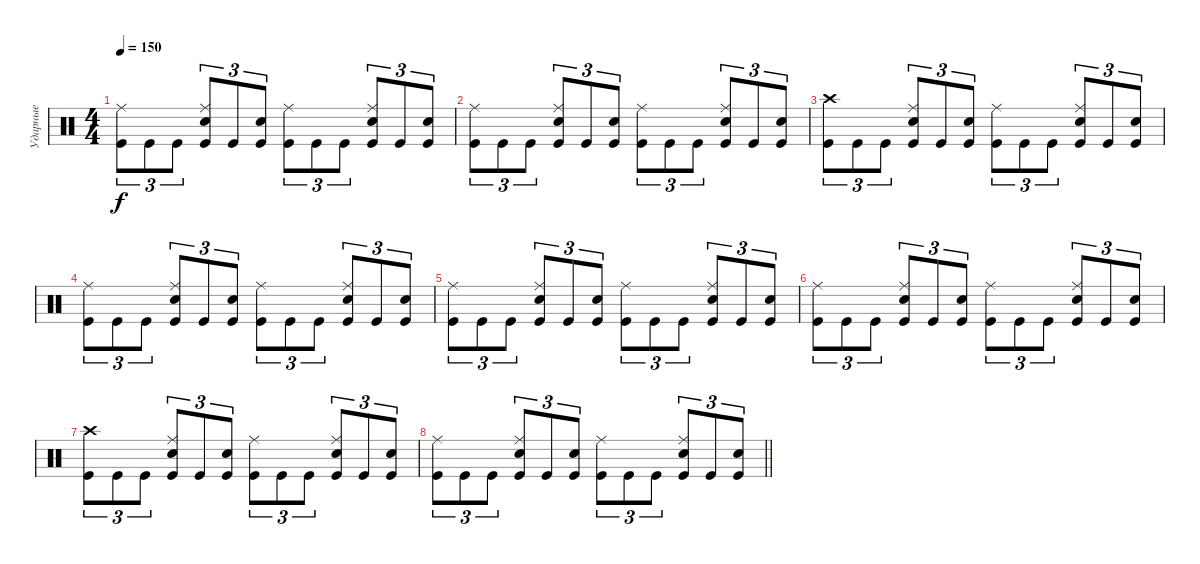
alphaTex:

\track ("Ударные" "Ударные") {instrument percussion}
\staff {score}
\articulation defaults
\ts (4 4)
\tempo 150
\clef neutral
\ks c
("Kick (hit)" "Ride (middle)").8{tu (3 2) dy f} "Kick (hit)".8{tu (3 2)} "Kick (hit)".8{tu (3 2)} ("Kick (hit)" "Electric Snare (hit)" "Ride (middle)").8{tu (3 2)} "Kick (hit)".8{tu (3 2)} ("Kick (hit)" "Electric Snare (hit)").8{tu (3 2)} ("Kick (hit)" "Ride (middle)").8{tu (3 2)} "Kick (hit)".8{tu (3 2)} "Kick (hit)".8{tu (3 2)} ("Kick (hit)" "Electric Snare (hit)" "Ride (middle)").8{tu (3 2)} "Kick (hit)".8{tu (3 2)} ("Kick (hit)" "Electric Snare (hit)").8{tu (3 2)} |
("Kick (hit)" "Ride (middle)").8{tu (3 2)} "Kick (hit)".8{tu (3 2)} "Kick (hit)".8{tu (3 2)} ("Kick (hit)" "Electric Snare (hit)" "Ride (middle)").8{tu (3 2)} "Kick (hit)".8{tu (3 2)} ("Kick (hit)" "Electric Snare (hit)").8{tu (3 2)} ("Kick (hit)" "Ride (middle)").8{tu (3 2)} "Kick (hit)".8{tu (3 2)} "Kick (hit)".8{tu (3 2)} ("Kick (hit)" "Electric Snare (hit)" "Ride (middle)").8{tu (3 2)} "Kick (hit)".8{tu (3 2)} ("Kick (hit)" "Electric Snare (hit)").8{tu (3 2)} |
("Kick (hit)" "Crash high (hit)").8{tu (3 2)} "Kick (hit)".8{tu (3 2)} "Kick (hit)".8{tu (3 2)} ("Kick (hit)" "Electric Snare (hit)" "Ride (middle)").8{tu (3 2)} "Kick (hit)".8{tu (3 2)} ("Kick (hit)" "Electric Snare (hit)").8{tu (3 2)} ("Kick (hit)" "Ride (middle)").8{tu (3 2)} "Kick (hit)".8{tu (3 2)} "Kick (hit)".8{tu (3 2)} ("Kick (hit)" "Electric Snare (hit)" "Ride (middle)").8{tu (3 2)} "Kick (hit)".8{tu (3 2)} ("Kick (hit)" "Electric Snare (hit)").8{tu (3 2)} |
("Kick (hit)" "Ride (middle)").8{tu (3 2)} "Kick (hit)".8{tu (3 2)} "Kick (hit)".8{tu (3 2)} ("Kick (hit)" "Electric Snare (hit)" "Ride (middle)").8{tu (3 2)} "Kick (hit)".8{tu (3 2)} ("Kick (hit)" "Electric Snare (hit)").8{tu (3 2)} ("Kick (hit)" "Ride (middle)").8{tu (3 2)} "Kick (hit)".8{tu (3 2)} "Kick (hit)".8{tu (3 2)} ("Kick (hit)" "Electric Snare (hit)" "Ride (middle)").8{tu (3 2)} "Kick (hit)".8{tu (3 2)} ("Kick (hit)" "Electric Snare (hit)").8{tu (3 2)} |
("Kick (hit)" "Ride (middle)").8{tu (3 2)} "Kick (hit)".8{tu (3 2)} "Kick (hit)".8{tu (3 2)} ("Kick (hit)" "Electric Snare (hit)" "Ride (middle)").8{tu (3 2)} "Kick (hit)".8{tu (3 2)} ("Kick (hit)" "Electric Snare (hit)").8{tu (3 2)} ("Kick (hit)" "Ride (middle)").8{tu (3 2)} "Kick (hit)".8{tu (3 2)} "Kick (hit)".8{tu (3 2)} ("Kick (hit)" "Electric Snare (hit)" "Ride (middle)").8{tu (3 2)} "Kick (hit)".8{tu (3 2)} ("Kick (hit)" "Electric Snare (hit)").8{tu (3 2)} |
("Kick (hit)" "Ride (middle)").8{tu (3 2)} "Kick (hit)".8{tu (3 2)} "Kick (hit)".8{tu (3 2)} ("Kick (hit)" "Electric Snare (hit)" "Ride (middle)").8{tu (3 2)} "Kick (hit)".8{tu (3 2)} ("Kick (hit)" "Electric Snare (hit)").8{tu (3 2)} ("Kick (hit)" "Ride (middle)").8{tu (3 2)} "Kick (hit)".8{tu (3 2)} "Kick (hit)".8{tu (3 2)} ("Kick (hit)" "Electric Snare (hit)" "Ride (middle)").8{tu (3 2)} "Kick (hit)".8{tu (3 2)} ("Kick (hit)" "Electric Snare (hit)").8{tu (3 2)} |
("Kick (hit)" "Crash high (hit)").8{tu (3 2)} "Kick (hit)".8{tu (3 2)} "Kick (hit)".8{tu (3 2)} ("Kick (hit)" "Electric Snare (hit)" "Ride (middle)").8{tu (3 2)} "Kick (hit)".8{tu (3 2)} ("Kick (hit)" "Electric Snare (hit)").8{tu (3 2)} ("Kick (hit)" "Ride (middle)").8{tu (3 2)} "Kick (hit)".8{tu (3 2)} "Kick (hit)".8{tu (3 2)} ("Kick (hit)" "Electric Snare (hit)" "Ride (middle)").8{tu (3 2)} "Kick (hit)".8{tu (3 2)} ("Kick (hit)" "Electric Snare (hit)").8{tu (3 2)} |
\barLineRight lightlight
("Kick (hit)" "Ride (middle)").8{tu (3 2)} "Kick (hit)".8{tu (3 2)} "Kick (hit)".8{tu (3 2)} ("Kick (hit)" "Electric Snare (hit)" "Ride (middle)").8{tu (3 2)} "Kick (hit)".8{tu (3 2)} ("Kick (hit)" "Electric Snare (hit)").8{tu (3 2)} ("Kick (hit)" "Ride (middle)").8{tu (3 2)} "Kick (hit)".8{tu (3 2)} "Kick (hit)".8{tu (3 2)} ("Kick (hit)" "Electric Snare (hit)" "Ride (middle)").8{tu (3 2)} "Kick (hit)".8{tu (3 2)} ("Kick (hit)" "Electric Snare (hit)").8{tu (3 2)}
